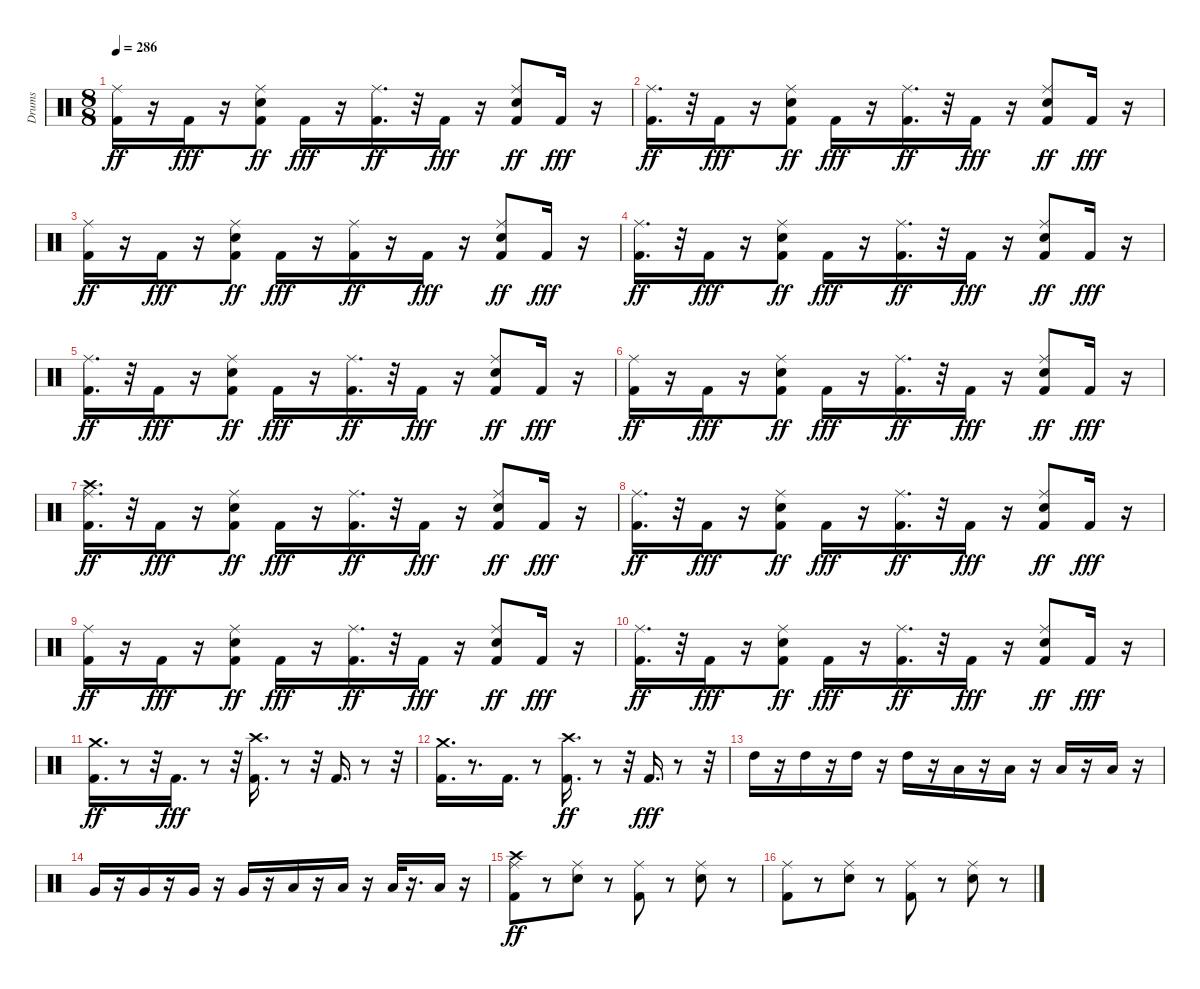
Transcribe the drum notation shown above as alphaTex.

\track ("Drums" "Drums") {instrument percussion}
\staff {score}
\articulation defaults
\ts (8 8)
\tempo 286
\clef neutral
\ks c
("Kick (hit) 2" "Ride (middle)").16{dy ff} r.16 "Kick (hit) 2".16{dy fff} r.16 ("Kick (hit) 2" "Snare (hit) 2" "Ride (middle)").8{dy ff} "Kick (hit) 2".16{dy fff} r.16 ("Kick (hit) 2" "Ride (middle)").16{d dy ff} r.32 "Kick (hit) 2".16{dy fff} r.16 ("Kick (hit) 2" "Snare (hit) 2" "Ride (middle)").8{dy ff} "Kick (hit) 2".16{dy fff} r.16 |
("Kick (hit) 2" "Ride (middle)").16{d dy ff} r.32 "Kick (hit) 2".16{dy fff} r.16 ("Kick (hit) 2" "Snare (hit) 2" "Ride (middle)").8{dy ff} "Kick (hit) 2".16{dy fff} r.16 ("Kick (hit) 2" "Ride (middle)").16{d dy ff} r.32 "Kick (hit) 2".16{dy fff} r.16 ("Kick (hit) 2" "Snare (hit) 2" "Ride (middle)").8{dy ff} "Kick (hit) 2".16{dy fff} r.16 |
("Kick (hit) 2" "Ride (middle)").16{dy ff} r.16 "Kick (hit) 2".16{dy fff} r.16 ("Kick (hit) 2" "Snare (hit) 2" "Ride (middle)").8{dy ff} "Kick (hit) 2".16{dy fff} r.16 ("Kick (hit) 2" "Ride (middle)").16{dy ff} r.16 "Kick (hit) 2".16{dy fff} r.16 ("Kick (hit) 2" "Snare (hit) 2" "Ride (middle)").8{dy ff} "Kick (hit) 2".16{dy fff} r.16 |
("Kick (hit) 2" "Ride (middle)").16{d dy ff} r.32 "Kick (hit) 2".16{dy fff} r.16 ("Kick (hit) 2" "Snare (hit) 2" "Ride (middle)").8{dy ff} "Kick (hit) 2".16{dy fff} r.16 ("Kick (hit) 2" "Ride (middle)").16{d dy ff} r.32 "Kick (hit) 2".16{dy fff} r.16 ("Kick (hit) 2" "Snare (hit) 2" "Ride (middle)").8{dy ff} "Kick (hit) 2".16{dy fff} r.16 |
("Kick (hit) 2" "Ride (middle)").16{d dy ff} r.32 "Kick (hit) 2".16{dy fff} r.16 ("Kick (hit) 2" "Snare (hit) 2" "Ride (middle)").8{dy ff} "Kick (hit) 2".16{dy fff} r.16 ("Kick (hit) 2" "Ride (middle)").16{d dy ff} r.32 "Kick (hit) 2".16{dy fff} r.16 ("Kick (hit) 2" "Snare (hit) 2" "Ride (middle)").8{dy ff} "Kick (hit) 2".16{dy fff} r.16 |
("Kick (hit) 2" "Ride (middle)").16{dy ff} r.16 "Kick (hit) 2".16{dy fff} r.16 ("Kick (hit) 2" "Snare (hit) 2" "Ride (middle)").8{dy ff} "Kick (hit) 2".16{dy fff} r.16 ("Kick (hit) 2" "Ride (middle)").16{d dy ff} r.32 "Kick (hit) 2".16{dy fff} r.16 ("Kick (hit) 2" "Snare (hit) 2" "Ride (middle)").8{dy ff} "Kick (hit) 2".16{dy fff} r.16 |
("Kick (hit) 2" "Ride (middle)" "Crash high (hit)").16{d dy ff} r.32 "Kick (hit) 2".16{dy fff} r.16 ("Kick (hit) 2" "Snare (hit) 2" "Ride (middle)").8{dy ff} "Kick (hit) 2".16{dy fff} r.16 ("Kick (hit) 2" "Ride (middle)").16{d dy ff} r.32 "Kick (hit) 2".16{dy fff} r.16 ("Kick (hit) 2" "Snare (hit) 2" "Ride (middle)").8{dy ff} "Kick (hit) 2".16{dy fff} r.16 |
("Kick (hit) 2" "Ride (middle)").16{d dy ff} r.32 "Kick (hit) 2".16{dy fff} r.16 ("Kick (hit) 2" "Snare (hit) 2" "Ride (middle)").8{dy ff} "Kick (hit) 2".16{dy fff} r.16 ("Kick (hit) 2" "Ride (middle)").16{d dy ff} r.32 "Kick (hit) 2".16{dy fff} r.16 ("Kick (hit) 2" "Snare (hit) 2" "Ride (middle)").8{dy ff} "Kick (hit) 2".16{dy fff} r.16 |
("Kick (hit) 2" "Ride (middle)").16{dy ff} r.16 "Kick (hit) 2".16{dy fff} r.16 ("Kick (hit) 2" "Snare (hit) 2" "Ride (middle)").8{dy ff} "Kick (hit) 2".16{dy fff} r.16 ("Kick (hit) 2" "Ride (middle)").16{d dy ff} r.32 "Kick (hit) 2".16{dy fff} r.16 ("Kick (hit) 2" "Snare (hit) 2" "Ride (middle)").8{dy ff} "Kick (hit) 2".16{dy fff} r.16 |
("Kick (hit) 2" "Ride (middle)").16{d dy ff} r.32 "Kick (hit) 2".16{dy fff} r.16 ("Kick (hit) 2" "Snare (hit) 2" "Ride (middle)").8{dy ff} "Kick (hit) 2".16{dy fff} r.16 ("Kick (hit) 2" "Ride (middle)").16{d dy ff} r.32 "Kick (hit) 2".16{dy fff} r.16 ("Kick (hit) 2" "Snare (hit) 2" "Ride (middle)").8{dy ff} "Kick (hit) 2".16{dy fff} r.16 |
("Kick (hit) 2" "Crash medium (hit)").16{d dy ff} r.8 r.32 "Kick (hit) 2".16{d dy fff} r.8 r.32 ("Crash high (hit)" "Kick (hit) 2").16{d} r.8 r.32 "Kick (hit) 2".16{d} r.8 r.32 |
("Crash medium (hit)" "Kick (hit) 2").16{d} r.8{d} "Kick (hit) 2".16{d} r.8 ("Kick (hit) 2" "Crash high (hit)").16{d dy ff} r.8 r.32 "Kick (hit) 2".16{d dy fff} r.8 r.32 |
"High Tom (hit)".16 r.16 "High Tom (hit)".16 r.16 "High Tom (hit)".16 r.16 "High Tom (hit)".16 r.16 "Low Tom (hit)".16 r.16 "Low Tom (hit)".16 r.16 "Low Tom (hit)".16 r.16 "Low Tom (hit)".16 r.16 |
"Very Low Tom (hit)".16 r.16 "Very Low Tom (hit)".16 r.16 "Very Low Tom (hit)".16 r.16 "Very Low Tom (hit)".16 r.16 "Low Floor Tom (hit)".16 r.16 "Low Floor Tom (hit)".16 r.16 "Low Floor Tom (hit)".32 r.16{d} "Low Floor Tom (hit)".16 r.16 |
("Kick (hit) 2" "Ride (middle)" "Crash high (hit)").8{dy ff} r.8 ("Snare (hit) 2" "Ride (middle)").8 r.8 ("Kick (hit) 2" "Ride (middle)").8 r.8 ("Snare (hit) 2" "Ride (middle)").8 r.8 |
("Kick (hit) 2" "Ride (middle)").8 r.8 ("Snare (hit) 2" "Ride (middle)").8 r.8 ("Kick (hit) 2" "Ride (middle)").8 r.8 ("Snare (hit) 2" "Ride (middle)").8 r.8
